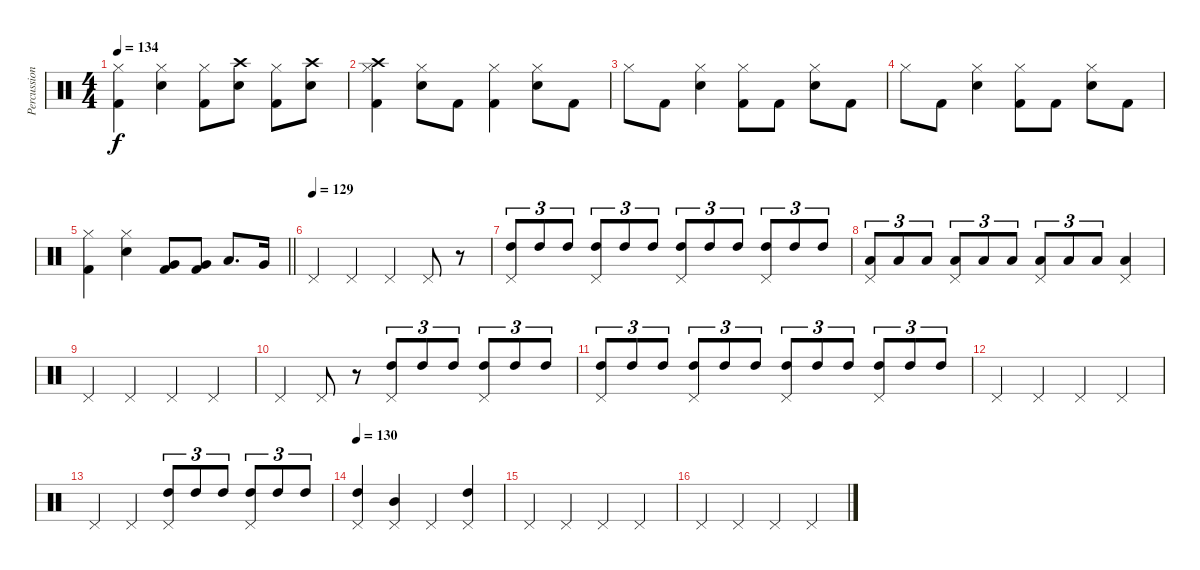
\track ("Percussion" "Percussion") {instrument percussion}
\staff {score}
\articulation defaults
\ts (4 4)
\tempo 134
\clef neutral
\ks c
("Hi-Hat (closed)" "Kick (hit) 2").4{dy f} ("Hi-Hat (closed)" "Electric Snare (hit)").4 ("Hi-Hat (closed)" "Kick (hit) 2").8 ("Crash high (hit)" "Electric Snare (hit)").8 ("Hi-Hat (closed)" "Kick (hit) 2").8 ("Crash high (hit)" "Electric Snare (hit)").8 |
("Hi-Hat (closed)" "Crash high (hit)" "Kick (hit) 2").4 ("Hi-Hat (closed)" "Electric Snare (hit)").8 "Kick (hit) 2".8 ("Hi-Hat (closed)" "Kick (hit) 2").4 ("Hi-Hat (closed)" "Electric Snare (hit)").8 "Kick (hit) 2".8 |
"Hi-Hat (closed)".8 "Kick (hit) 2".8 ("Hi-Hat (closed)" "Electric Snare (hit)").4 ("Hi-Hat (closed)" "Kick (hit) 2").8 "Kick (hit) 2".8 ("Hi-Hat (closed)" "Electric Snare (hit)").8 "Kick (hit) 2".8 |
"Hi-Hat (closed)".8 "Kick (hit) 2".8 ("Hi-Hat (closed)" "Electric Snare (hit)").4 ("Hi-Hat (closed)" "Kick (hit) 2").8 "Kick (hit) 2".8 ("Hi-Hat (closed)" "Electric Snare (hit)").8 "Kick (hit) 2".8 |
\barLineRight lightlight
("Hi-Hat (closed)" "Kick (hit) 2").4 ("Hi-Hat (closed)" "Electric Snare (hit)").4 ("Very Low Tom (hit)" "Kick (hit) 2").8 ("Very Low Tom (hit)" "Kick (hit) 2").8 "Low Tom (hit)".8{d} "Very Low Tom (hit)".16 |
\tempo (129)
"Pedal Hi-Hat (hit)".4 "Pedal Hi-Hat (hit)".4 "Pedal Hi-Hat (hit)".4 "Pedal Hi-Hat (hit)".8 r.8{volume 0} |
("Pedal Hi-Hat (hit)" "High Tom (hit)").8{tu (3 2) volume 16} "High Tom (hit)".8{tu (3 2)} "High Tom (hit)".8{tu (3 2)} ("Pedal Hi-Hat (hit)" "High Tom (hit)").8{tu (3 2)} "High Tom (hit)".8{tu (3 2)} "High Tom (hit)".8{tu (3 2)} ("Pedal Hi-Hat (hit)" "High Tom (hit)").8{tu (3 2)} "High Tom (hit)".8{tu (3 2)} "High Tom (hit)".8{tu (3 2)} ("Pedal Hi-Hat (hit)" "High Tom (hit)").8{tu (3 2)} "High Tom (hit)".8{tu (3 2)} "High Tom (hit)".8{tu (3 2)} |
("Pedal Hi-Hat (hit)" "Low Tom (hit)").8{tu (3 2)} "Low Tom (hit)".8{tu (3 2)} "Low Tom (hit)".8{tu (3 2)} ("Pedal Hi-Hat (hit)" "Low Tom (hit)").8{tu (3 2)} "Low Tom (hit)".8{tu (3 2)} "Low Tom (hit)".8{tu (3 2)} ("Pedal Hi-Hat (hit)" "Low Tom (hit)").8{tu (3 2) volume 0} "Low Tom (hit)".8{tu (3 2)} "Low Tom (hit)".8{tu (3 2)} ("Pedal Hi-Hat (hit)" "Low Tom (hit)").4 |
"Pedal Hi-Hat (hit)".4{volume 16} "Pedal Hi-Hat (hit)".4 "Pedal Hi-Hat (hit)".4 "Pedal Hi-Hat (hit)".4 |
"Pedal Hi-Hat (hit)".4 "Pedal Hi-Hat (hit)".8 r.8{volume 0} ("Pedal Hi-Hat (hit)" "High Tom (hit)").8{tu (3 2) volume 16} "High Tom (hit)".8{tu (3 2)} "High Tom (hit)".8{tu (3 2)} ("Pedal Hi-Hat (hit)" "High Tom (hit)").8{tu (3 2)} "High Tom (hit)".8{tu (3 2)} "High Tom (hit)".8{tu (3 2)} |
("Pedal Hi-Hat (hit)" "High Tom (hit)").8{tu (3 2)} "High Tom (hit)".8{tu (3 2)} "High Tom (hit)".8{tu (3 2)} ("Pedal Hi-Hat (hit)" "High Tom (hit)").8{tu (3 2)} "High Tom (hit)".8{tu (3 2)} "High Tom (hit)".8{tu (3 2)} ("Pedal Hi-Hat (hit)" "High Tom (hit)").8{tu (3 2)} "High Tom (hit)".8{tu (3 2)} "High Tom (hit)".8{tu (3 2)} ("Pedal Hi-Hat (hit)" "High Tom (hit)").8{tu (3 2)} "High Tom (hit)".8{tu (3 2)} "High Tom (hit)".8{tu (3 2)} |
"Pedal Hi-Hat (hit)".4 "Pedal Hi-Hat (hit)".4 "Pedal Hi-Hat (hit)".4 "Pedal Hi-Hat (hit)".4 |
"Pedal Hi-Hat (hit)".4 "Pedal Hi-Hat (hit)".4 ("Pedal Hi-Hat (hit)" "High Tom (hit)").8{tu (3 2)} "High Tom (hit)".8{tu (3 2)} "High Tom (hit)".8{tu (3 2)} ("Pedal Hi-Hat (hit)" "High Tom (hit)").8{tu (3 2)} "High Tom (hit)".8{tu (3 2)} "High Tom (hit)".8{tu (3 2)} |
\tempo 130
("Pedal Hi-Hat (hit)" "High Tom (hit)").4 ("Pedal Hi-Hat (hit)" "Mid Tom (hit)").4 "Pedal Hi-Hat (hit)".4 ("Pedal Hi-Hat (hit)" "High Tom (hit)").4 |
"Pedal Hi-Hat (hit)".4 "Pedal Hi-Hat (hit)".4 "Pedal Hi-Hat (hit)".4 "Pedal Hi-Hat (hit)".4 |
"Pedal Hi-Hat (hit)".4 "Pedal Hi-Hat (hit)".4 "Pedal Hi-Hat (hit)".4 "Pedal Hi-Hat (hit)".4
